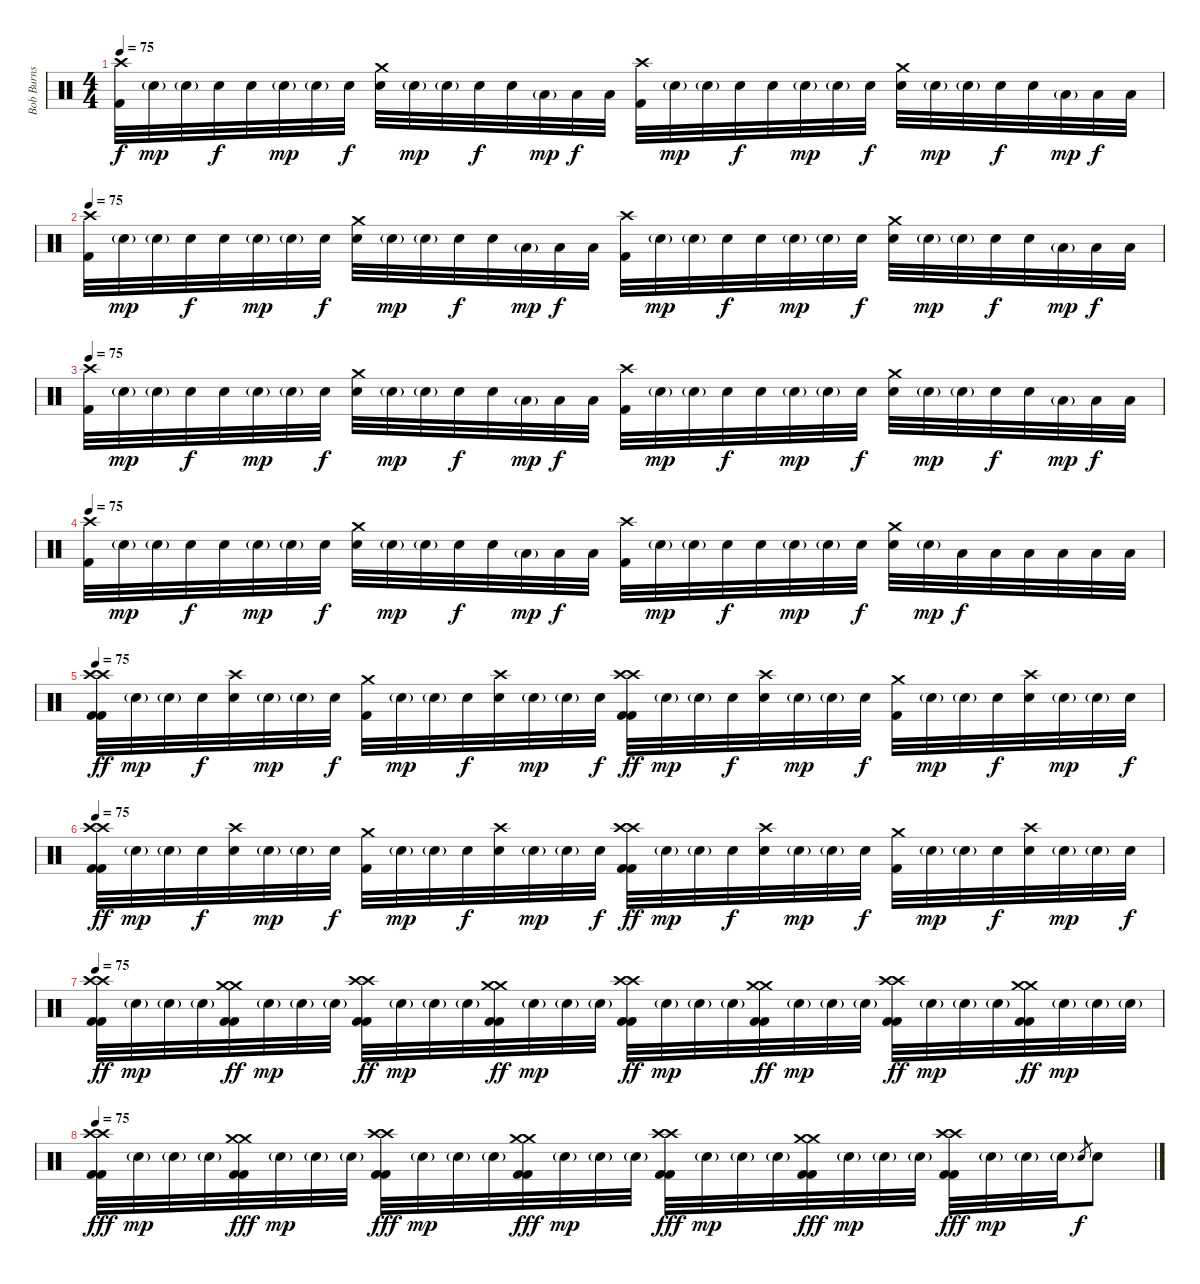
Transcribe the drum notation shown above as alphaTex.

\track ("Bob Burns (drums and percussion)" "Bob Burns ") {instrument percussion}
\staff {score}
\articulation defaults
\ts (4 4)
\tempo 75
\clef neutral
\ks c
("Crash high (hit)" "Kick (hit) 2").32{dy f} "Electric Snare (hit)"{g}.32{dy mp} "Electric Snare (hit)"{g}.32 "Electric Snare (hit)".32{dy f} "Electric Snare (hit)".32 "Electric Snare (hit)"{g}.32{dy mp} "Electric Snare (hit)"{g}.32 "Electric Snare (hit)".32{dy f} ("Crash medium (hit)" "Electric Snare (hit)").32 "Electric Snare (hit)"{g}.32{dy mp} "Electric Snare (hit)"{g}.32 "Electric Snare (hit)".32{dy f} "Electric Snare (hit)".32 "Low Tom (hit)"{g}.32{dy mp} "Low Tom (hit)".32{dy f} "Low Tom (hit)".32 ("Crash high (hit)" "Kick (hit) 2").32 "Electric Snare (hit)"{g}.32{dy mp} "Electric Snare (hit)"{g}.32 "Electric Snare (hit)".32{dy f} "Electric Snare (hit)".32 "Electric Snare (hit)"{g}.32{dy mp} "Electric Snare (hit)"{g}.32 "Electric Snare (hit)".32{dy f} ("Crash medium (hit)" "Electric Snare (hit)").32 "Electric Snare (hit)"{g}.32{dy mp} "Electric Snare (hit)"{g}.32 "Electric Snare (hit)".32{dy f} "Electric Snare (hit)".32 "Low Tom (hit)"{g}.32{dy mp} "Low Tom (hit)".32{dy f} "Low Tom (hit)".32 |
\tempo 75
("Crash high (hit)" "Kick (hit) 2").32 "Electric Snare (hit)"{g}.32{dy mp} "Electric Snare (hit)"{g}.32 "Electric Snare (hit)".32{dy f} "Electric Snare (hit)".32 "Electric Snare (hit)"{g}.32{dy mp} "Electric Snare (hit)"{g}.32 "Electric Snare (hit)".32{dy f} ("Crash medium (hit)" "Electric Snare (hit)").32 "Electric Snare (hit)"{g}.32{dy mp} "Electric Snare (hit)"{g}.32 "Electric Snare (hit)".32{dy f} "Electric Snare (hit)".32 "Low Tom (hit)"{g}.32{dy mp} "Low Tom (hit)".32{dy f} "Low Tom (hit)".32 ("Crash high (hit)" "Kick (hit) 2").32 "Electric Snare (hit)"{g}.32{dy mp} "Electric Snare (hit)"{g}.32 "Electric Snare (hit)".32{dy f} "Electric Snare (hit)".32 "Electric Snare (hit)"{g}.32{dy mp} "Electric Snare (hit)"{g}.32 "Electric Snare (hit)".32{dy f} ("Crash medium (hit)" "Electric Snare (hit)").32 "Electric Snare (hit)"{g}.32{dy mp} "Electric Snare (hit)"{g}.32 "Electric Snare (hit)".32{dy f} "Electric Snare (hit)".32 "Low Tom (hit)"{g}.32{dy mp} "Low Tom (hit)".32{dy f} "Low Tom (hit)".32 |
\tempo 75
("Crash high (hit)" "Kick (hit) 2").32 "Electric Snare (hit)"{g}.32{dy mp} "Electric Snare (hit)"{g}.32 "Electric Snare (hit)".32{dy f} "Electric Snare (hit)".32 "Electric Snare (hit)"{g}.32{dy mp} "Electric Snare (hit)"{g}.32 "Electric Snare (hit)".32{dy f} ("Crash medium (hit)" "Electric Snare (hit)").32 "Electric Snare (hit)"{g}.32{dy mp} "Electric Snare (hit)"{g}.32 "Electric Snare (hit)".32{dy f} "Electric Snare (hit)".32 "Low Tom (hit)"{g}.32{dy mp} "Low Tom (hit)".32{dy f} "Low Tom (hit)".32 ("Crash high (hit)" "Kick (hit) 2").32 "Electric Snare (hit)"{g}.32{dy mp} "Electric Snare (hit)"{g}.32 "Electric Snare (hit)".32{dy f} "Electric Snare (hit)".32 "Electric Snare (hit)"{g}.32{dy mp} "Electric Snare (hit)"{g}.32 "Electric Snare (hit)".32{dy f} ("Crash medium (hit)" "Electric Snare (hit)").32 "Electric Snare (hit)"{g}.32{dy mp} "Electric Snare (hit)"{g}.32 "Electric Snare (hit)".32{dy f} "Electric Snare (hit)".32 "Low Tom (hit)"{g}.32{dy mp} "Low Tom (hit)".32{dy f} "Low Tom (hit)".32 |
\tempo 75
("Crash high (hit)" "Kick (hit) 2").32 "Electric Snare (hit)"{g}.32{dy mp} "Electric Snare (hit)"{g}.32 "Electric Snare (hit)".32{dy f} "Electric Snare (hit)".32 "Electric Snare (hit)"{g}.32{dy mp} "Electric Snare (hit)"{g}.32 "Electric Snare (hit)".32{dy f} ("Crash medium (hit)" "Electric Snare (hit)").32 "Electric Snare (hit)"{g}.32{dy mp} "Electric Snare (hit)"{g}.32 "Electric Snare (hit)".32{dy f} "Electric Snare (hit)".32 "Low Tom (hit)"{g}.32{dy mp} "Low Tom (hit)".32{dy f} "Low Tom (hit)".32 ("Crash high (hit)" "Kick (hit) 2").32 "Electric Snare (hit)"{g}.32{dy mp} "Electric Snare (hit)"{g}.32 "Electric Snare (hit)".32{dy f} "Electric Snare (hit)".32 "Electric Snare (hit)"{g}.32{dy mp} "Electric Snare (hit)"{g}.32 "Electric Snare (hit)".32{dy f} ("Crash medium (hit)" "Electric Snare (hit)").32 "Electric Snare (hit)"{g}.32{dy mp} "Low Tom (hit)".32{dy f} "Low Tom (hit)".32 "Low Tom (hit)".32 "Low Tom (hit)".32 "Low Tom (hit)".32 "Low Tom (hit)".32 |
\tempo 75
("Crash high (hit)" "Crash high (hit)" "Kick (hit) 2" "Kick (hit) 2").32{dy ff} "Electric Snare (hit)"{g}.32{dy mp} "Electric Snare (hit)"{g}.32 "Electric Snare (hit)".32{dy f} ("Crash high (hit)" "Electric Snare (hit)").32 "Electric Snare (hit)"{g}.32{dy mp} "Electric Snare (hit)"{g}.32 "Electric Snare (hit)".32{dy f} ("Crash medium (hit)" "Kick (hit) 2").32 "Electric Snare (hit)"{g}.32{dy mp} "Electric Snare (hit)"{g}.32 "Electric Snare (hit)".32{dy f} ("Crash high (hit)" "Electric Snare (hit)").32 "Electric Snare (hit)"{g}.32{dy mp} "Electric Snare (hit)"{g}.32 "Electric Snare (hit)".32{dy f} ("Crash high (hit)" "Crash high (hit)" "Kick (hit) 2" "Kick (hit) 2").32{dy ff} "Electric Snare (hit)"{g}.32{dy mp} "Electric Snare (hit)"{g}.32 "Electric Snare (hit)".32{dy f} ("Crash high (hit)" "Electric Snare (hit)").32 "Electric Snare (hit)"{g}.32{dy mp} "Electric Snare (hit)"{g}.32 "Electric Snare (hit)".32{dy f} ("Crash medium (hit)" "Kick (hit) 2").32 "Electric Snare (hit)"{g}.32{dy mp} "Electric Snare (hit)"{g}.32 "Electric Snare (hit)".32{dy f} ("Crash high (hit)" "Electric Snare (hit)").32 "Electric Snare (hit)"{g}.32{dy mp} "Electric Snare (hit)"{g}.32 "Electric Snare (hit)".32{dy f} |
\tempo 75
("Crash high (hit)" "Crash high (hit)" "Kick (hit) 2" "Kick (hit) 2").32{dy ff} "Electric Snare (hit)"{g}.32{dy mp} "Electric Snare (hit)"{g}.32 "Electric Snare (hit)".32{dy f} ("Crash high (hit)" "Electric Snare (hit)").32 "Electric Snare (hit)"{g}.32{dy mp} "Electric Snare (hit)"{g}.32 "Electric Snare (hit)".32{dy f} ("Crash medium (hit)" "Kick (hit) 2").32 "Electric Snare (hit)"{g}.32{dy mp} "Electric Snare (hit)"{g}.32 "Electric Snare (hit)".32{dy f} ("Crash high (hit)" "Electric Snare (hit)").32 "Electric Snare (hit)"{g}.32{dy mp} "Electric Snare (hit)"{g}.32 "Electric Snare (hit)".32{dy f} ("Crash high (hit)" "Crash high (hit)" "Kick (hit) 2" "Kick (hit) 2").32{dy ff} "Electric Snare (hit)"{g}.32{dy mp} "Electric Snare (hit)"{g}.32 "Electric Snare (hit)".32{dy f} ("Crash high (hit)" "Electric Snare (hit)").32 "Electric Snare (hit)"{g}.32{dy mp} "Electric Snare (hit)"{g}.32 "Electric Snare (hit)".32{dy f} ("Crash medium (hit)" "Kick (hit) 2").32 "Electric Snare (hit)"{g}.32{dy mp} "Electric Snare (hit)"{g}.32 "Electric Snare (hit)".32{dy f} ("Crash high (hit)" "Electric Snare (hit)").32 "Electric Snare (hit)"{g}.32{dy mp} "Electric Snare (hit)"{g}.32 "Electric Snare (hit)".32{dy f} |
\tempo 75
("Crash high (hit)" "Crash high (hit)" "Kick (hit) 2" "Kick (hit) 2").32{dy ff} "Electric Snare (hit)"{g}.32{dy mp} "Electric Snare (hit)"{g}.32 "Electric Snare (hit)"{g}.32 ("Crash medium (hit)" "Crash medium (hit)" "Kick (hit) 2" "Kick (hit) 2").32{dy ff} "Electric Snare (hit)"{g}.32{dy mp} "Electric Snare (hit)"{g}.32 "Electric Snare (hit)"{g}.32 ("Crash high (hit)" "Crash high (hit)" "Kick (hit) 2" "Kick (hit) 2").32{dy ff} "Electric Snare (hit)"{g}.32{dy mp} "Electric Snare (hit)"{g}.32 "Electric Snare (hit)"{g}.32 ("Crash medium (hit)" "Crash medium (hit)" "Kick (hit) 2" "Kick (hit) 2").32{dy ff} "Electric Snare (hit)"{g}.32{dy mp} "Electric Snare (hit)"{g}.32 "Electric Snare (hit)"{g}.32 ("Crash high (hit)" "Crash high (hit)" "Kick (hit) 2" "Kick (hit) 2").32{dy ff} "Electric Snare (hit)"{g}.32{dy mp} "Electric Snare (hit)"{g}.32 "Electric Snare (hit)"{g}.32 ("Crash medium (hit)" "Crash medium (hit)" "Kick (hit) 2" "Kick (hit) 2").32{dy ff} "Electric Snare (hit)"{g}.32{dy mp} "Electric Snare (hit)"{g}.32 "Electric Snare (hit)"{g}.32 ("Crash high (hit)" "Crash high (hit)" "Kick (hit) 2" "Kick (hit) 2").32{dy ff} "Electric Snare (hit)"{g}.32{dy mp} "Electric Snare (hit)"{g}.32 "Electric Snare (hit)"{g}.32 ("Crash medium (hit)" "Crash medium (hit)" "Kick (hit) 2" "Kick (hit) 2").32{dy ff} "Electric Snare (hit)"{g}.32{dy mp} "Electric Snare (hit)"{g}.32 "Electric Snare (hit)"{g}.32 |
\tempo 75
("Crash high (hit)" "Crash high (hit)" "Kick (hit) 2" "Kick (hit) 2").32{dy fff} "Electric Snare (hit)"{g}.32{dy mp} "Electric Snare (hit)"{g}.32 "Electric Snare (hit)"{g}.32 ("Crash medium (hit)" "Crash medium (hit)" "Kick (hit) 2" "Kick (hit) 2").32{dy fff} "Electric Snare (hit)"{g}.32{dy mp} "Electric Snare (hit)"{g}.32 "Electric Snare (hit)"{g}.32 ("Crash high (hit)" "Crash high (hit)" "Kick (hit) 2" "Kick (hit) 2").32{dy fff} "Electric Snare (hit)"{g}.32{dy mp} "Electric Snare (hit)"{g}.32 "Electric Snare (hit)"{g}.32 ("Crash medium (hit)" "Crash medium (hit)" "Kick (hit) 2" "Kick (hit) 2").32{dy fff} "Electric Snare (hit)"{g}.32{dy mp} "Electric Snare (hit)"{g}.32 "Electric Snare (hit)"{g}.32 ("Crash high (hit)" "Crash high (hit)" "Kick (hit) 2" "Kick (hit) 2").32{dy fff} "Electric Snare (hit)"{g}.32{dy mp} "Electric Snare (hit)"{g}.32 "Electric Snare (hit)"{g}.32 ("Crash medium (hit)" "Crash medium (hit)" "Kick (hit) 2" "Kick (hit) 2").32{dy fff} "Electric Snare (hit)"{g}.32{dy mp} "Electric Snare (hit)"{g}.32 "Electric Snare (hit)"{g}.32 ("Crash high (hit)" "Crash high (hit)" "Kick (hit) 2" "Kick (hit) 2").32{dy fff} "Electric Snare (hit)"{g}.32{dy mp} "Electric Snare (hit)"{g}.32 "Electric Snare (hit)"{g}.32 "Electric Snare (hit)".8{gr dy f} "Electric Snare (hit)".8
